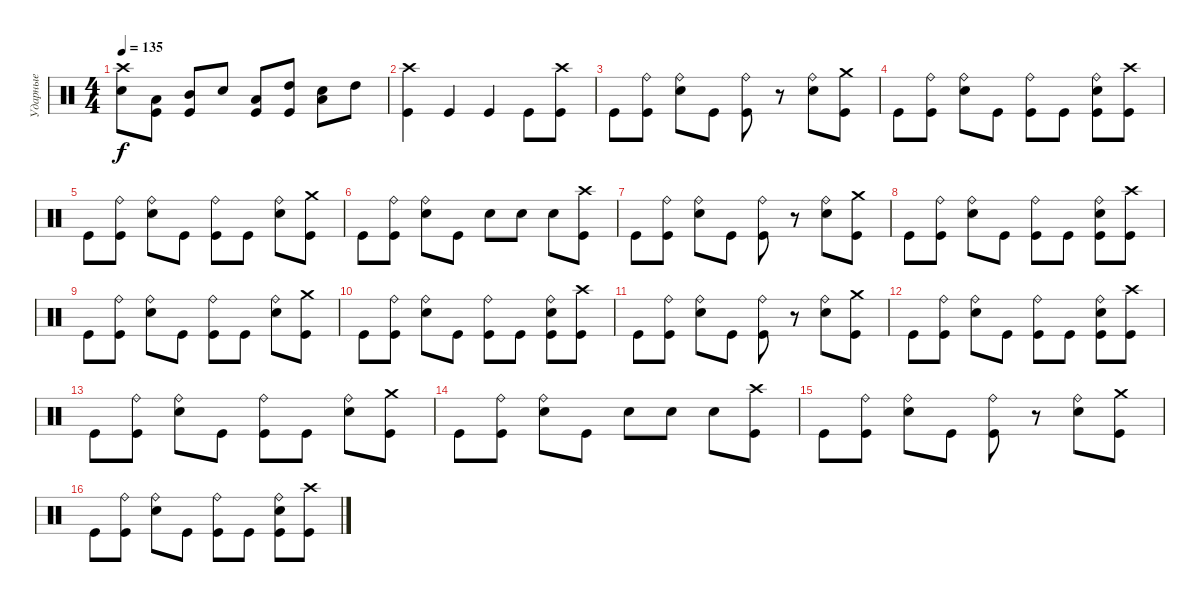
\track ("Ударные" "Ударные") {instrument percussion}
\staff {score}
\articulation defaults
\ts (4 4)
\tempo 135
\clef neutral
\ks c
("Crash high (hit)" "Electric Snare (hit)").8{dy f} ("Low Tom (hit)" "Kick (hit)").8 ("Mid Tom (hit)" "Kick (hit)").8 "Electric Snare (hit)".8 ("Low Tom (hit)" "Kick (hit)").8 ("High Tom (hit)" "Kick (hit)").8 ("Low Tom (hit)" "Electric Snare (hit)").8 "High Tom (hit)".8 |
("Crash high (hit)" "Kick (hit)").4 "Kick (hit)".4 "Kick (hit)".4 "Kick (hit)".8 ("Crash high (hit)" "Kick (hit)").8 |
"Kick (hit)".8 ("Ride (bell)" "Kick (hit)").8 ("Ride (bell)" "Electric Snare (hit)").8 "Kick (hit)".8 ("Ride (bell)" "Kick (hit)").8 r.8 ("Ride (bell)" "Electric Snare (hit)").8 ("Crash medium (hit)" "Kick (hit)").8 |
"Kick (hit)".8 ("Ride (bell)" "Kick (hit)").8 ("Ride (bell)" "Electric Snare (hit)").8 "Kick (hit)".8 ("Ride (bell)" "Kick (hit)").8 "Kick (hit)".8 ("Ride (bell)" "Electric Snare (hit)" "Kick (hit)").8 ("Crash high (hit)" "Kick (hit)").8 |
"Kick (hit)".8 ("Ride (bell)" "Kick (hit)").8 ("Ride (bell)" "Electric Snare (hit)").8 "Kick (hit)".8 ("Ride (bell)" "Kick (hit)").8 "Kick (hit)".8 ("Ride (bell)" "Electric Snare (hit)").8 ("Crash medium (hit)" "Kick (hit)").8 |
"Kick (hit)".8 ("Ride (bell)" "Kick (hit)").8 ("Ride (bell)" "Electric Snare (hit)").8 "Kick (hit)".8 "Electric Snare (hit)".8 "Electric Snare (hit)".8 "Electric Snare (hit)".8 ("Crash high (hit)" "Kick (hit)").8 |
"Kick (hit)".8 ("Ride (bell)" "Kick (hit)").8 ("Ride (bell)" "Electric Snare (hit)").8 "Kick (hit)".8 ("Ride (bell)" "Kick (hit)").8 r.8 ("Ride (bell)" "Electric Snare (hit)").8 ("Crash medium (hit)" "Kick (hit)").8 |
"Kick (hit)".8 ("Ride (bell)" "Kick (hit)").8 ("Ride (bell)" "Electric Snare (hit)").8 "Kick (hit)".8 ("Ride (bell)" "Kick (hit)").8 "Kick (hit)".8 ("Ride (bell)" "Electric Snare (hit)" "Kick (hit)").8 ("Crash high (hit)" "Kick (hit)").8 |
"Kick (hit)".8 ("Ride (bell)" "Kick (hit)").8 ("Ride (bell)" "Electric Snare (hit)").8 "Kick (hit)".8 ("Ride (bell)" "Kick (hit)").8 "Kick (hit)".8 ("Ride (bell)" "Electric Snare (hit)").8 ("Crash medium (hit)" "Kick (hit)").8 |
"Kick (hit)".8 ("Ride (bell)" "Kick (hit)").8 ("Ride (bell)" "Electric Snare (hit)").8 "Kick (hit)".8 ("Ride (bell)" "Kick (hit)").8 "Kick (hit)".8 ("Ride (bell)" "Electric Snare (hit)" "Kick (hit)").8 ("Crash high (hit)" "Kick (hit)").8 |
"Kick (hit)".8 ("Ride (bell)" "Kick (hit)").8 ("Ride (bell)" "Electric Snare (hit)").8 "Kick (hit)".8 ("Ride (bell)" "Kick (hit)").8 r.8 ("Ride (bell)" "Electric Snare (hit)").8 ("Crash medium (hit)" "Kick (hit)").8 |
"Kick (hit)".8 ("Ride (bell)" "Kick (hit)").8 ("Ride (bell)" "Electric Snare (hit)").8 "Kick (hit)".8 ("Ride (bell)" "Kick (hit)").8 "Kick (hit)".8 ("Ride (bell)" "Electric Snare (hit)" "Kick (hit)").8 ("Crash high (hit)" "Kick (hit)").8 |
"Kick (hit)".8 ("Ride (bell)" "Kick (hit)").8 ("Ride (bell)" "Electric Snare (hit)").8 "Kick (hit)".8 ("Ride (bell)" "Kick (hit)").8 "Kick (hit)".8 ("Ride (bell)" "Electric Snare (hit)").8 ("Crash medium (hit)" "Kick (hit)").8 |
"Kick (hit)".8 ("Ride (bell)" "Kick (hit)").8 ("Ride (bell)" "Electric Snare (hit)").8 "Kick (hit)".8 "Electric Snare (hit)".8 "Electric Snare (hit)".8 "Electric Snare (hit)".8 ("Crash high (hit)" "Kick (hit)").8 |
"Kick (hit)".8 ("Ride (bell)" "Kick (hit)").8 ("Ride (bell)" "Electric Snare (hit)").8 "Kick (hit)".8 ("Ride (bell)" "Kick (hit)").8 r.8 ("Ride (bell)" "Electric Snare (hit)").8 ("Crash medium (hit)" "Kick (hit)").8 |
"Kick (hit)".8 ("Ride (bell)" "Kick (hit)").8 ("Ride (bell)" "Electric Snare (hit)").8 "Kick (hit)".8 ("Ride (bell)" "Kick (hit)").8 "Kick (hit)".8 ("Ride (bell)" "Electric Snare (hit)" "Kick (hit)").8 ("Crash high (hit)" "Kick (hit)").8
